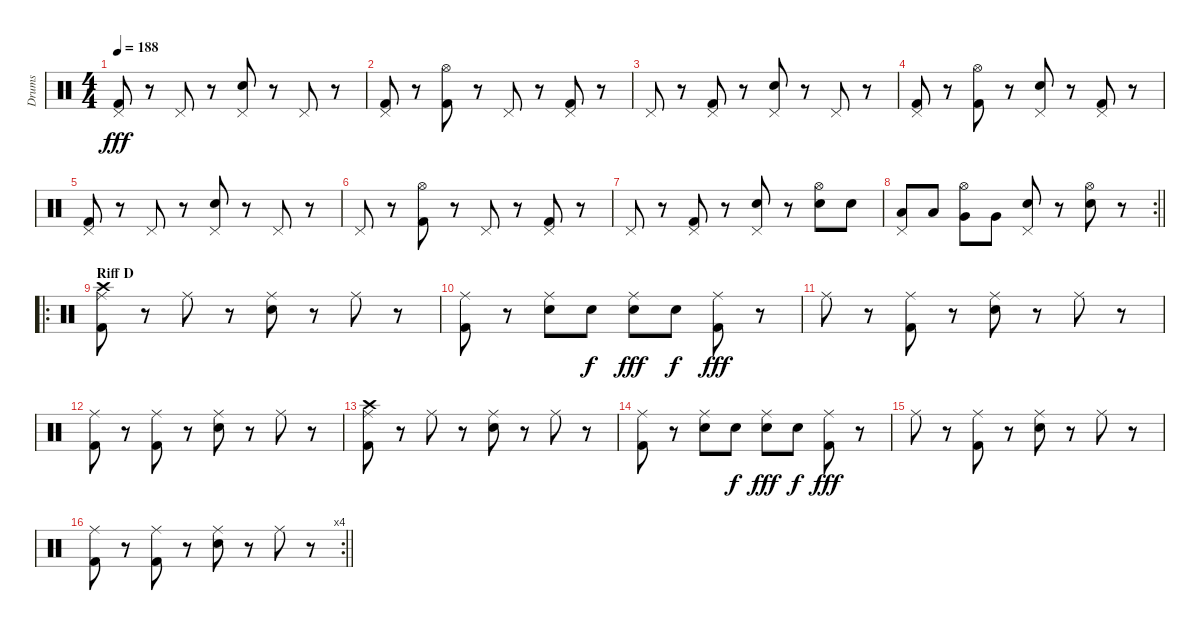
\track ("Drums" "Drums") {instrument percussion}
\staff {score}
\articulation defaults
\ts (4 4)
\tempo 188
\clef neutral
\ks c
("Pedal Hi-Hat (hit)" "Kick (hit) 2").8{dy fff} r.8 "Pedal Hi-Hat (hit)".8 r.8 ("Pedal Hi-Hat (hit)" "Electric Snare (hit)").8 r.8 "Pedal Hi-Hat (hit)".8 r.8 |
("Pedal Hi-Hat (hit)" "Kick (hit) 2").8 r.8 ("Hi-Hat (open)" "Kick (hit) 2").8 r.8 "Pedal Hi-Hat (hit)".8 r.8 ("Pedal Hi-Hat (hit)" "Kick (hit) 2").8 r.8 |
"Pedal Hi-Hat (hit)".8 r.8 ("Pedal Hi-Hat (hit)" "Kick (hit) 2").8 r.8 ("Pedal Hi-Hat (hit)" "Electric Snare (hit)").8 r.8 "Pedal Hi-Hat (hit)".8 r.8 |
("Pedal Hi-Hat (hit)" "Kick (hit) 2").8 r.8 ("Hi-Hat (open)" "Kick (hit) 2").8 r.8 ("Pedal Hi-Hat (hit)" "Electric Snare (hit)").8 r.8 ("Pedal Hi-Hat (hit)" "Kick (hit) 2").8 r.8 |
("Pedal Hi-Hat (hit)" "Kick (hit) 2").8 r.8 "Pedal Hi-Hat (hit)".8 r.8 ("Pedal Hi-Hat (hit)" "Electric Snare (hit)").8 r.8 "Pedal Hi-Hat (hit)".8 r.8 |
"Pedal Hi-Hat (hit)".8 r.8 ("Hi-Hat (open)" "Kick (hit) 2").8 r.8 "Pedal Hi-Hat (hit)".8 r.8 ("Pedal Hi-Hat (hit)" "Kick (hit) 2").8 r.8 |
"Pedal Hi-Hat (hit)".8 r.8 ("Pedal Hi-Hat (hit)" "Kick (hit) 2").8 r.8 ("Pedal Hi-Hat (hit)" "Electric Snare (hit)").8 r.8 ("Hi-Hat (open)" "Electric Snare (hit)").8 "Electric Snare (hit)".8 |
\rc 2
\barLineRight lightlight
("Pedal Hi-Hat (hit)" "Low Tom (hit)").8 "Low Tom (hit)".8 ("Hi-Hat (open)" "Very Low Tom (hit)").8 "Very Low Tom (hit)".8 ("Pedal Hi-Hat (hit)" "Electric Snare (hit)").8 r.8 ("Hi-Hat (open)" "Electric Snare (hit)").8 r.8 |
\ro
\section ("" "Riff D")
("Crash high (hit)" "Ride (middle)" "Kick (hit) 2").8 r.8 "Ride (middle)".8 r.8 ("Ride (middle)" "Electric Snare (hit)").8 r.8 "Ride (middle)".8 r.8 |
("Ride (middle)" "Kick (hit) 2").8 r.8 ("Ride (middle)" "Electric Snare (hit)").8 "Electric Snare (hit)".8{dy f} ("Ride (middle)" "Electric Snare (hit)").8{dy fff} "Electric Snare (hit)".8{dy f} ("Ride (middle)" "Kick (hit) 2").8{dy fff} r.8 |
"Ride (middle)".8 r.8 ("Ride (middle)" "Kick (hit) 2").8 r.8 ("Ride (middle)" "Electric Snare (hit)").8 r.8 "Ride (middle)".8 r.8 |
("Ride (middle)" "Kick (hit) 2").8 r.8 ("Ride (middle)" "Kick (hit) 2").8 r.8 ("Ride (middle)" "Electric Snare (hit)").8 r.8 "Ride (middle)".8 r.8 |
("Crash high (hit)" "Ride (middle)" "Kick (hit) 2").8 r.8 "Ride (middle)".8 r.8 ("Ride (middle)" "Electric Snare (hit)").8 r.8 "Ride (middle)".8 r.8 |
("Ride (middle)" "Kick (hit) 2").8 r.8 ("Ride (middle)" "Electric Snare (hit)").8 "Electric Snare (hit)".8{dy f} ("Ride (middle)" "Electric Snare (hit)").8{dy fff} "Electric Snare (hit)".8{dy f} ("Ride (middle)" "Kick (hit) 2").8{dy fff} r.8 |
"Ride (middle)".8 r.8 ("Ride (middle)" "Kick (hit) 2").8 r.8 ("Ride (middle)" "Electric Snare (hit)").8 r.8 "Ride (middle)".8 r.8 |
\rc 4
\barLineRight lightlight
("Ride (middle)" "Kick (hit) 2").8 r.8 ("Ride (middle)" "Kick (hit) 2").8 r.8 ("Ride (middle)" "Electric Snare (hit)").8 r.8 "Ride (middle)".8 r.8
